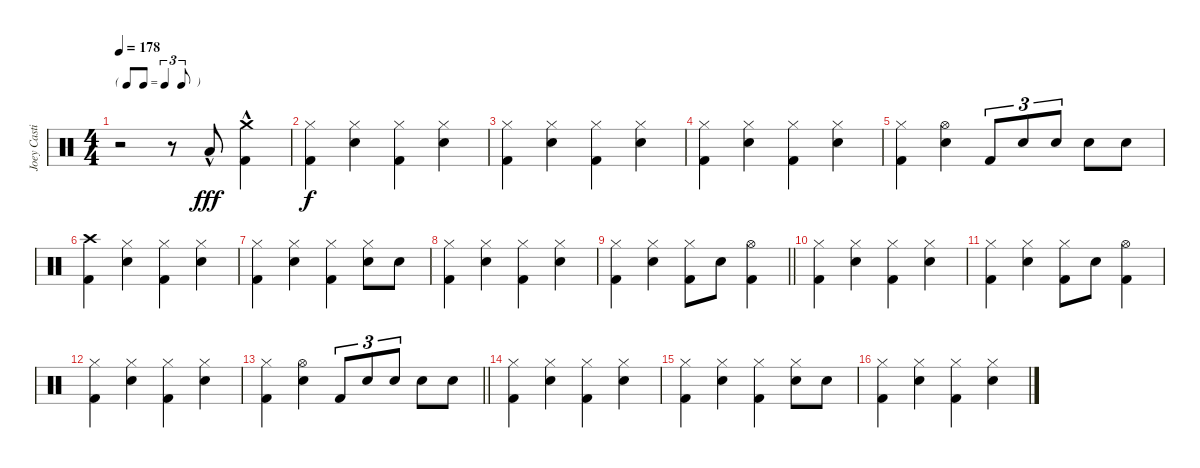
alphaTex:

\track ("Joey Castillo" "Joey Casti") {instrument percussion}
\staff {score}
\articulation defaults
\ts (4 4)
\tf triplet8th
\tempo 178
\clef neutral
\ks c
r.2{dy f} r.8 "Low Floor Tom (hit)"{hac}.8{dy fff} ("Crash medium (hit)" "Kick (hit) 2"{hac}).4 |
("Hi-Hat (closed)" "Kick (hit) 2").4{dy f} ("Hi-Hat (closed)" "Snare (hit) 2").4 ("Hi-Hat (closed)" "Kick (hit) 2").4 ("Hi-Hat (closed)" "Snare (hit) 2").4 |
("Hi-Hat (closed)" "Kick (hit) 2").4 ("Hi-Hat (closed)" "Snare (hit) 2").4 ("Hi-Hat (closed)" "Kick (hit) 2").4 ("Hi-Hat (closed)" "Snare (hit) 2").4 |
("Hi-Hat (closed)" "Kick (hit) 2").4 ("Hi-Hat (closed)" "Snare (hit) 2").4 ("Hi-Hat (closed)" "Kick (hit) 2").4 ("Hi-Hat (closed)" "Snare (hit) 2").4 |
("Hi-Hat (closed)" "Kick (hit) 2").4 ("Hi-Hat (open)" "Snare (hit) 2").4 "Kick (hit) 2".8{tu (3 2)} "Snare (hit) 2".8{tu (3 2)} "Snare (hit) 2".8{tu (3 2)} "Snare (hit) 2".8 "Snare (hit) 2".8 |
("Crash high (hit)" "Kick (hit) 2").4 ("Hi-Hat (closed)" "Snare (hit) 2").4 ("Hi-Hat (closed)" "Kick (hit) 2").4 ("Hi-Hat (closed)" "Snare (hit) 2").4 |
("Hi-Hat (closed)" "Kick (hit) 2").4 ("Hi-Hat (closed)" "Snare (hit) 2").4 ("Hi-Hat (closed)" "Kick (hit) 2").4 ("Hi-Hat (closed)" "Snare (hit) 2").8 "Snare (hit) 2".8 |
("Hi-Hat (closed)" "Kick (hit) 2").4 ("Hi-Hat (closed)" "Snare (hit) 2").4 ("Hi-Hat (closed)" "Kick (hit) 2").4 ("Hi-Hat (closed)" "Snare (hit) 2").4 |
\barLineRight lightlight
("Hi-Hat (closed)" "Kick (hit) 2").4 ("Hi-Hat (closed)" "Snare (hit) 2").4 ("Hi-Hat (closed)" "Kick (hit) 2").8 "Snare (hit) 2".8 ("Hi-Hat (open)" "Kick (hit) 2").4 |
("Hi-Hat (closed)" "Kick (hit) 2").4 ("Hi-Hat (closed)" "Snare (hit) 2").4 ("Hi-Hat (closed)" "Kick (hit) 2").4 ("Hi-Hat (closed)" "Snare (hit) 2").4 |
("Hi-Hat (closed)" "Kick (hit) 2").4 ("Hi-Hat (closed)" "Snare (hit) 2").4 ("Hi-Hat (closed)" "Kick (hit) 2").8 "Snare (hit) 2".8 ("Hi-Hat (open)" "Kick (hit) 2").4 |
("Hi-Hat (closed)" "Kick (hit) 2").4 ("Hi-Hat (closed)" "Snare (hit) 2").4 ("Hi-Hat (closed)" "Kick (hit) 2").4 ("Hi-Hat (closed)" "Snare (hit) 2").4 |
\barLineRight lightlight
("Hi-Hat (closed)" "Kick (hit) 2").4 ("Hi-Hat (open)" "Snare (hit) 2").4 "Kick (hit) 2".8{tu (3 2)} "Snare (hit) 2".8{tu (3 2)} "Snare (hit) 2".8{tu (3 2)} "Snare (hit) 2".8 "Snare (hit) 2".8 |
("Hi-Hat (closed)" "Kick (hit) 2").4 ("Hi-Hat (closed)" "Snare (hit) 2").4 ("Hi-Hat (closed)" "Kick (hit) 2").4 ("Hi-Hat (closed)" "Snare (hit) 2").4 |
("Hi-Hat (closed)" "Kick (hit) 2").4 ("Hi-Hat (closed)" "Snare (hit) 2").4 ("Hi-Hat (closed)" "Kick (hit) 2").4 ("Hi-Hat (closed)" "Snare (hit) 2").8 "Snare (hit) 2".8 |
("Hi-Hat (closed)" "Kick (hit) 2").4 ("Hi-Hat (closed)" "Snare (hit) 2").4 ("Hi-Hat (closed)" "Kick (hit) 2").4 ("Hi-Hat (closed)" "Snare (hit) 2").4
